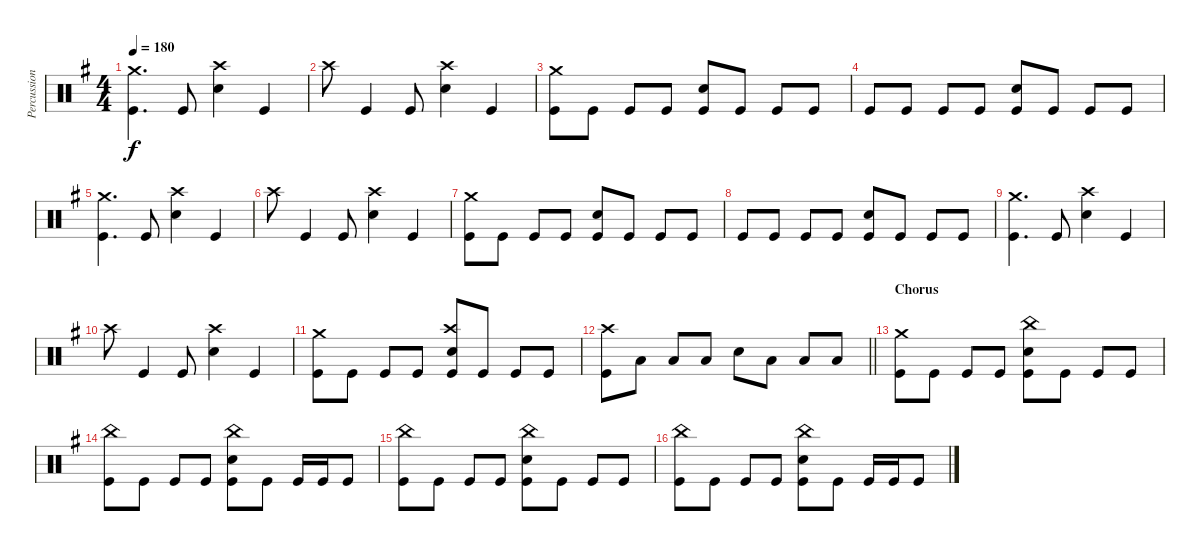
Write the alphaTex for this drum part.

\track ("Percussion" "Percussion") {instrument percussion}
\staff {score}
\articulation defaults
\ts (4 4)
\tempo 180
\clef neutral
\ks g
("Crash medium (hit)" "Kick (hit)").4{d dy f} "Kick (hit)".8 ("Crash high (hit)" "Electric Snare (hit)").4 "Kick (hit)".4 |
"Crash high (hit)".8 "Kick (hit)".4 "Kick (hit)".8 ("Crash high (hit)" "Electric Snare (hit)").4 "Kick (hit)".4 |
("Crash medium (hit)" "Kick (hit)").8 "Kick (hit)".8 "Kick (hit)".8 "Kick (hit)".8 ("Electric Snare (hit)" "Kick (hit)").8 "Kick (hit)".8 "Kick (hit)".8 "Kick (hit)".8 |
"Kick (hit)".8 "Kick (hit)".8 "Kick (hit)".8 "Kick (hit)".8 ("Electric Snare (hit)" "Kick (hit)").8 "Kick (hit)".8 "Kick (hit)".8 "Kick (hit)".8 |
("Crash medium (hit)" "Kick (hit)").4{d} "Kick (hit)".8 ("Crash high (hit)" "Electric Snare (hit)").4 "Kick (hit)".4 |
"Crash high (hit)".8 "Kick (hit)".4 "Kick (hit)".8 ("Crash high (hit)" "Electric Snare (hit)").4 "Kick (hit)".4 |
("Crash medium (hit)" "Kick (hit)").8 "Kick (hit)".8 "Kick (hit)".8 "Kick (hit)".8 ("Electric Snare (hit)" "Kick (hit)").8 "Kick (hit)".8 "Kick (hit)".8 "Kick (hit)".8 |
"Kick (hit)".8 "Kick (hit)".8 "Kick (hit)".8 "Kick (hit)".8 ("Electric Snare (hit)" "Kick (hit)").8 "Kick (hit)".8 "Kick (hit)".8 "Kick (hit)".8 |
("Crash medium (hit)" "Kick (hit)").4{d} "Kick (hit)".8 ("Crash high (hit)" "Electric Snare (hit)").4 "Kick (hit)".4 |
"Crash high (hit)".8 "Kick (hit)".4 "Kick (hit)".8 ("Crash high (hit)" "Electric Snare (hit)").4 "Kick (hit)".4 |
("Crash medium (hit)" "Kick (hit)").8 "Kick (hit)".8 "Kick (hit)".8 "Kick (hit)".8 ("Crash high (hit)" "Electric Snare (hit)" "Kick (hit)").8 "Kick (hit)".8 "Kick (hit)".8 "Kick (hit)".8 |
\barLineRight lightlight
("Crash high (hit)" "Kick (hit)").8 "Low Floor Tom (hit)".8 "Low Floor Tom (hit)".8 "Low Floor Tom (hit)".8 "Electric Snare (hit)".8 "Low Floor Tom (hit)".8 "Low Floor Tom (hit)".8 "Low Floor Tom (hit)".8 |
\section ("" "Chorus")
("Crash medium (hit)" "Kick (hit)").8 "Kick (hit)".8 "Kick (hit)".8 "Kick (hit)".8 ("China (hit)" "Electric Snare (hit)" "Kick (hit)").8 "Kick (hit)".8 "Kick (hit)".8 "Kick (hit)".8 |
("China (hit)" "Kick (hit)").8 "Kick (hit)".8 "Kick (hit)".8 "Kick (hit)".8 ("China (hit)" "Electric Snare (hit)" "Kick (hit)").8 "Kick (hit)".8 "Kick (hit)".16 "Kick (hit)".16 "Kick (hit)".8 |
("China (hit)" "Kick (hit)").8 "Kick (hit)".8 "Kick (hit)".8 "Kick (hit)".8 ("China (hit)" "Electric Snare (hit)" "Kick (hit)").8 "Kick (hit)".8 "Kick (hit)".8 "Kick (hit)".8 |
("China (hit)" "Kick (hit)").8 "Kick (hit)".8 "Kick (hit)".8 "Kick (hit)".8 ("China (hit)" "Electric Snare (hit)" "Kick (hit)").8 "Kick (hit)".8 "Kick (hit)".16 "Kick (hit)".16 "Kick (hit)".8
